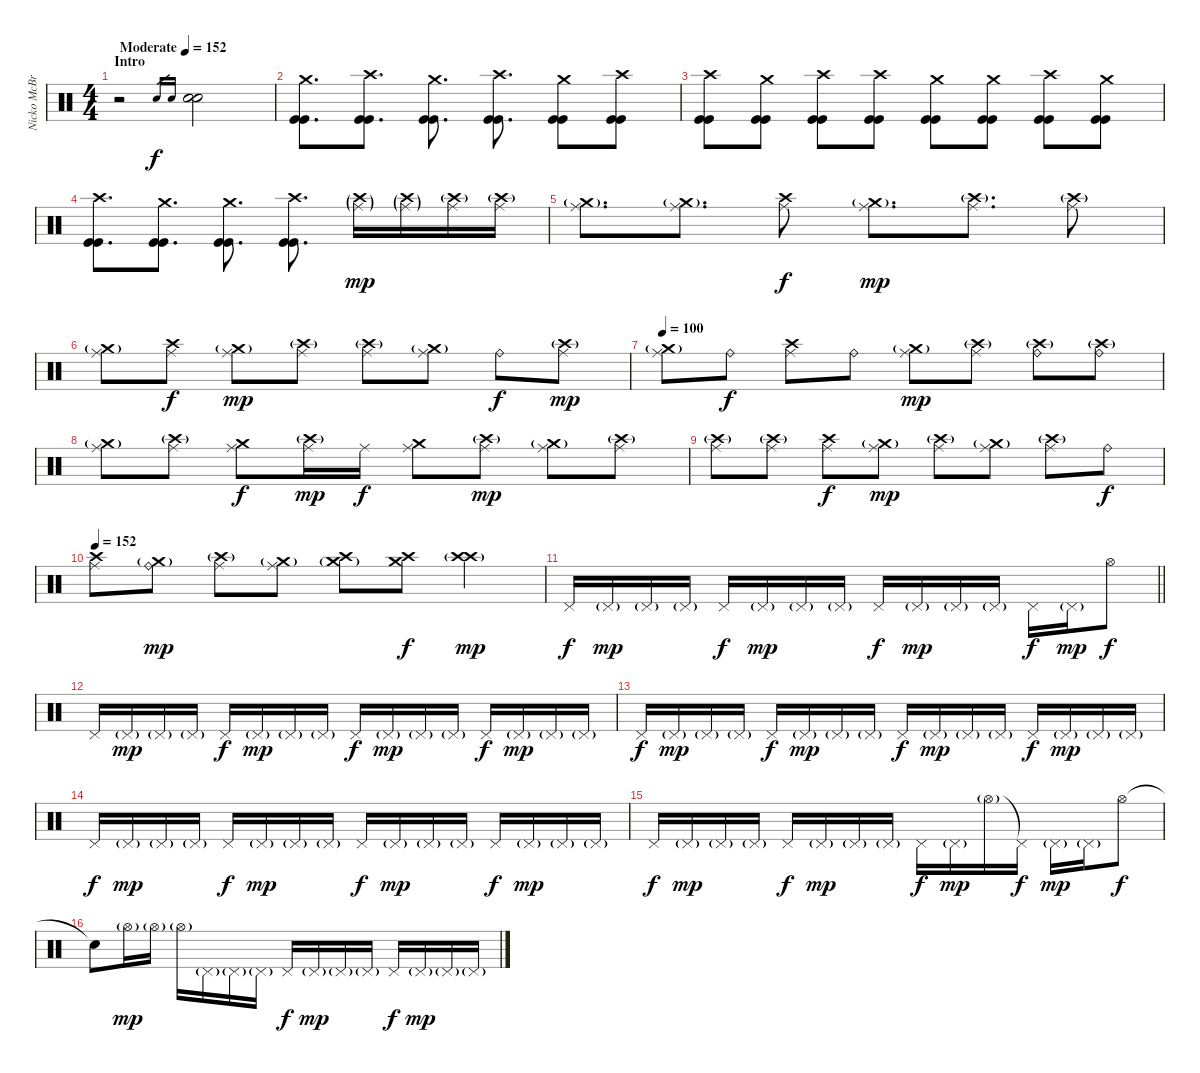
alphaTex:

\track ("Nicko McBrain" "Nicko McBr") {instrument percussion}
\staff {score}
\articulation defaults
\ts (4 4)
\section ("" "Intro")
\tempo (152 "Moderate")
\clef neutral
\ks c
r.2{dy f} "Electric Snare (hit)".16{gr} "Electric Snare (hit)".16{gr} ("Electric Snare (hit)" "Electric Snare (hit)").2 |
("Crash medium (hit)" "Kick (hit)" "Kick (hit)").8{d} ("Crash high (hit)" "Kick (hit)" "Kick (hit)").8{d} ("Crash medium (hit)" "Kick (hit)" "Kick (hit)").8{d} ("Crash high (hit)" "Kick (hit)" "Kick (hit)").8{d} ("Crash medium (hit)" "Kick (hit)" "Kick (hit)").8 ("Crash high (hit)" "Kick (hit)" "Kick (hit)").8 |
("Crash high (hit)" "Kick (hit)" "Kick (hit)").8 ("Crash medium (hit)" "Kick (hit)" "Kick (hit)").8 ("Crash high (hit)" "Kick (hit)" "Kick (hit)").8 ("Crash high (hit)" "Kick (hit)" "Kick (hit)").8 ("Crash medium (hit)" "Kick (hit)" "Kick (hit)").8 ("Crash medium (hit)" "Kick (hit)" "Kick (hit)").8 ("Crash high (hit)" "Kick (hit)" "Kick (hit)").8 ("Crash medium (hit)" "Kick (hit)" "Kick (hit)").8 |
("Crash high (hit)" "Kick (hit)" "Kick (hit)").8{d} ("Crash medium (hit)" "Kick (hit)" "Kick (hit)").8{d} ("Crash medium (hit)" "Kick (hit)" "Kick (hit)").8{d} ("Crash high (hit)" "Kick (hit)" "Kick (hit)").8{d} ("Crash high (hit)"{g} "Ride (middle)"{g}).16{dy mp} ("Crash high (hit)"{g} "Ride (middle)"{g}).16 ("Crash high (hit)"{g} "Ride (middle)").16 ("Crash high (hit)"{g} "Ride (middle)").16 |
("Crash medium (hit)"{g} "Ride (middle)").8{d} ("Crash medium (hit)"{g} "Ride (middle)").8{d} ("Crash high (hit)" "Ride (middle)").8{dy f} ("Crash medium (hit)"{g} "Ride (middle)").8{d dy mp} ("Crash high (hit)"{g} "Ride (middle)").8{d} ("Crash high (hit)"{g} "Ride (middle)").8 |
("Crash medium (hit)"{g} "Ride (middle)").8 ("Crash high (hit)" "Ride (middle)").8{dy f} ("Crash medium (hit)"{g} "Ride (middle)").8{dy mp} ("Crash high (hit)"{g} "Ride (middle)").8 ("Crash high (hit)"{g} "Ride (middle)").8 ("Crash medium (hit)"{g} "Ride (middle)").8 "Ride (bell)".8{dy f} ("Crash high (hit)"{g} "Ride (middle)").8{dy mp} |
\tempo 100
("Crash medium (hit)"{g} "Ride (middle)").8 "Ride (bell)".8{dy f} ("Crash high (hit)" "Ride (middle)").8 "Ride (bell)".8 ("Crash medium (hit)"{g} "Ride (middle)").8{dy mp} ("Crash high (hit)"{g} "Ride (middle)").8 ("Crash high (hit)"{g} "Ride (bell)").8 ("Crash high (hit)"{g} "Ride (bell)").8 |
("Crash medium (hit)"{g} "Ride (middle)").8 ("Crash high (hit)"{g} "Ride (middle)").8 ("Crash medium (hit)" "Ride (middle)").8{dy f} ("Crash high (hit)"{g} "Ride (middle)").16{dy mp} "Ride (middle)".16{dy f} ("Crash medium (hit)" "Ride (middle)").8 ("Crash high (hit)"{g} "Ride (middle)").8{dy mp} ("Crash medium (hit)"{g} "Ride (middle)").8 ("Crash high (hit)"{g} "Ride (middle)").8 |
("Crash high (hit)"{g} "Ride (middle)").8 ("Crash high (hit)"{g} "Ride (middle)").8 ("Crash high (hit)" "Ride (middle)").8{dy f} ("Crash medium (hit)"{g} "Ride (middle)").8{dy mp} ("Crash high (hit)"{g} "Ride (middle)").8 ("Crash medium (hit)"{g} "Ride (middle)").8 ("Crash high (hit)"{g} "Ride (middle)").8 "Ride (bell)".8{dy f} |
\tempo 152
("Crash high (hit)" "Ride (middle)").8 ("Crash medium (hit)"{g} "Ride (bell)").8{dy mp} ("Crash high (hit)"{g} "Ride (middle)").8 ("Crash medium (hit)"{g} "Ride (middle)").8 ("Crash high (hit)" "Crash medium (hit)"{g}).8 ("Crash high (hit)" "Crash medium (hit)").8{dy f} ("Crash high (hit)"{g} "Crash high (hit)").4{dy mp} |
\barLineRight lightlight "Pedal Hi-Hat (hit)".16{dy f} "Pedal Hi-Hat (hit)"{g}.16{dy mp} "Pedal Hi-Hat (hit)"{g}.16 "Pedal Hi-Hat (hit)"{g}.16 "Pedal Hi-Hat (hit)".16{dy f} "Pedal Hi-Hat (hit)"{g}.16{dy mp} "Pedal Hi-Hat (hit)"{g}.16 "Pedal Hi-Hat (hit)"{g}.16 "Pedal Hi-Hat (hit)".16{dy f} "Pedal Hi-Hat (hit)"{g}.16{dy mp} "Pedal Hi-Hat (hit)"{g}.16 "Pedal Hi-Hat (hit)"{g}.16 "Pedal Hi-Hat (hit)".16{dy f} "Pedal Hi-Hat (hit)"{g}.16{dy mp} "Hi-Hat (open)".8{dy f}
|
"Pedal Hi-Hat (hit)".16 "Pedal Hi-Hat (hit)"{g}.16{dy mp} "Pedal Hi-Hat (hit)"{g}.16 "Pedal Hi-Hat (hit)"{g}.16 "Pedal Hi-Hat (hit)".16{dy f} "Pedal Hi-Hat (hit)"{g}.16{dy mp} "Pedal Hi-Hat (hit)"{g}.16 "Pedal Hi-Hat (hit)"{g}.16 "Pedal Hi-Hat (hit)".16{dy f} "Pedal Hi-Hat (hit)"{g}.16{dy mp} "Pedal Hi-Hat (hit)"{g}.16 "Pedal Hi-Hat (hit)"{g}.16 "Pedal Hi-Hat (hit)".16{dy f} "Pedal Hi-Hat (hit)"{g}.16{dy mp} "Pedal Hi-Hat (hit)"{g}.16 "Pedal Hi-Hat (hit)"{g}.16 |
"Pedal Hi-Hat (hit)".16{dy f} "Pedal Hi-Hat (hit)"{g}.16{dy mp} "Pedal Hi-Hat (hit)"{g}.16 "Pedal Hi-Hat (hit)"{g}.16 "Pedal Hi-Hat (hit)".16{dy f} "Pedal Hi-Hat (hit)"{g}.16{dy mp} "Pedal Hi-Hat (hit)"{g}.16 "Pedal Hi-Hat (hit)"{g}.16 "Pedal Hi-Hat (hit)".16{dy f} "Pedal Hi-Hat (hit)"{g}.16{dy mp} "Pedal Hi-Hat (hit)"{g}.16 "Pedal Hi-Hat (hit)"{g}.16 "Pedal Hi-Hat (hit)".16{dy f} "Pedal Hi-Hat (hit)"{g}.16{dy mp} "Pedal Hi-Hat (hit)"{g}.16 "Pedal Hi-Hat (hit)"{g}.16 |
"Pedal Hi-Hat (hit)".16{dy f} "Pedal Hi-Hat (hit)"{g}.16{dy mp} "Pedal Hi-Hat (hit)"{g}.16 "Pedal Hi-Hat (hit)"{g}.16 "Pedal Hi-Hat (hit)".16{dy f} "Pedal Hi-Hat (hit)"{g}.16{dy mp} "Pedal Hi-Hat (hit)"{g}.16 "Pedal Hi-Hat (hit)"{g}.16 "Pedal Hi-Hat (hit)".16{dy f} "Pedal Hi-Hat (hit)"{g}.16{dy mp} "Pedal Hi-Hat (hit)"{g}.16 "Pedal Hi-Hat (hit)"{g}.16 "Pedal Hi-Hat (hit)".16{dy f} "Pedal Hi-Hat (hit)"{g}.16{dy mp} "Pedal Hi-Hat (hit)"{g}.16 "Pedal Hi-Hat (hit)"{g}.16 |
"Pedal Hi-Hat (hit)".16{dy f} "Pedal Hi-Hat (hit)"{g}.16{dy mp} "Pedal Hi-Hat (hit)"{g}.16 "Pedal Hi-Hat (hit)"{g}.16 "Pedal Hi-Hat (hit)".16{dy f} "Pedal Hi-Hat (hit)"{g}.16{dy mp} "Pedal Hi-Hat (hit)"{g}.16 "Pedal Hi-Hat (hit)"{g}.16 "Pedal Hi-Hat (hit)".16{dy f} "Pedal Hi-Hat (hit)"{g}.16{dy mp} "Hi-Hat (open)"{g}.16 "Pedal Hi-Hat (hit)"{t}.16{dy f} "Pedal Hi-Hat (hit)"{g}.16{dy mp} "Pedal Hi-Hat (hit)"{g}.16 "Hi-Hat (open)".8{dy f} |
"Snare (hit)"{t}.8 "Hi-Hat (open)"{g}.16{dy mp} "Hi-Hat (open)"{g}.16 "Hi-Hat (open)"{g}.16 "Pedal Hi-Hat (hit)"{g}.16 "Pedal Hi-Hat (hit)"{g}.16 "Pedal Hi-Hat (hit)"{g}.16 "Pedal Hi-Hat (hit)".16{dy f} "Pedal Hi-Hat (hit)"{g}.16{dy mp} "Pedal Hi-Hat (hit)"{g}.16 "Pedal Hi-Hat (hit)"{g}.16 "Pedal Hi-Hat (hit)".16{dy f} "Pedal Hi-Hat (hit)"{g}.16{dy mp} "Pedal Hi-Hat (hit)"{g}.16 "Pedal Hi-Hat (hit)"{g}.16
